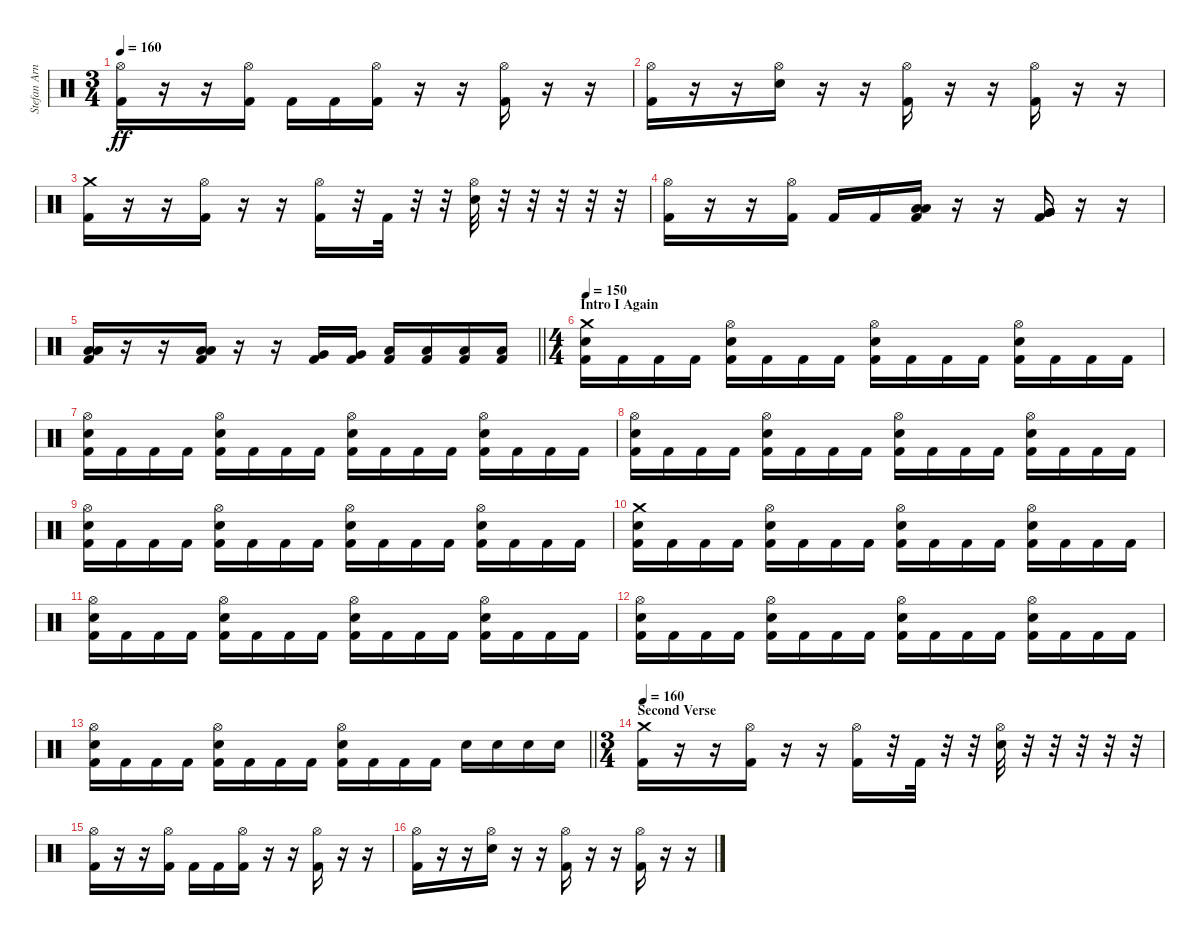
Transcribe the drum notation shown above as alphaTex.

\track ("Stefan Arnold" "Stefan Arn") {instrument percussion}
\staff {score}
\articulation defaults
\ts (3 4)
\tempo 160
\clef neutral
\ks c
("Hi-Hat (open)" "Kick (hit) 2").16{dy ff} r.16 r.16 ("Hi-Hat (open)" "Kick (hit) 2").16 "Kick (hit) 2".16 "Kick (hit) 2".16 ("Hi-Hat (open)" "Kick (hit) 2").16 r.16 r.16 ("Hi-Hat (open)" "Kick (hit) 2").16 r.16 r.16 |
("Hi-Hat (open)" "Kick (hit) 2").16 r.16 r.16 ("Hi-Hat (open)" "Electric Snare (hit)").16 r.16 r.16 ("Hi-Hat (open)" "Kick (hit) 2").16 r.16 r.16 ("Hi-Hat (open)" "Kick (hit) 2").16 r.16 r.16 |
("Crash medium (hit)" "Kick (hit) 2").16 r.16 r.16 ("Hi-Hat (open)" "Kick (hit) 2").16 r.16 r.16 ("Hi-Hat (open)" "Kick (hit) 2").16 r.32 "Kick (hit) 2".32 r.32 r.32 ("Hi-Hat (open)" "Electric Snare (hit)").32 r.32 r.32 r.32 r.32 r.32 |
("Hi-Hat (open)" "Kick (hit) 2").16 r.16 r.16 ("Hi-Hat (open)" "Kick (hit) 2").16 "Kick (hit) 2".16 "Kick (hit) 2".16 ("Low Tom (hit)" "Low Tom (hit)" "Kick (hit) 2").16 r.16 r.16 ("Very Low Tom (hit)" "Very Low Tom (hit)" "Kick (hit) 2").16 r.16 r.16 |
\barLineRight lightlight
("Low Floor Tom (hit)" "Low Floor Tom (hit)" "Kick (hit) 2").16 r.16 r.16 ("Low Tom (hit)" "Low Tom (hit)" "Kick (hit) 2").16 r.16 r.16 ("Very Low Tom (hit)" "Kick (hit) 2").16 ("Very Low Tom (hit)" "Kick (hit) 2").16 ("Low Tom (hit)" "Kick (hit) 2").16 ("Low Tom (hit)" "Kick (hit) 2").16 ("Low Tom (hit)" "Kick (hit) 2").16 ("Low Floor Tom (hit)" "Kick (hit) 2").16 |
\ts (4 4)
\section ("" "Intro I Again")
\tempo 150
("Crash medium (hit)" "Electric Snare (hit)" "Kick (hit) 2").16 "Kick (hit) 2".16 "Kick (hit) 2".16 "Kick (hit) 2".16 ("Hi-Hat (open)" "Electric Snare (hit)" "Kick (hit) 2").16 "Kick (hit) 2".16 "Kick (hit) 2".16 "Kick (hit) 2".16 ("Hi-Hat (open)" "Electric Snare (hit)" "Kick (hit) 2").16 "Kick (hit) 2".16 "Kick (hit) 2".16 "Kick (hit) 2".16 ("Hi-Hat (open)" "Electric Snare (hit)" "Kick (hit) 2").16 "Kick (hit) 2".16 "Kick (hit) 2".16 "Kick (hit) 2".16 |
("Hi-Hat (open)" "Electric Snare (hit)" "Kick (hit) 2").16 "Kick (hit) 2".16 "Kick (hit) 2".16 "Kick (hit) 2".16 ("Hi-Hat (open)" "Electric Snare (hit)" "Kick (hit) 2").16 "Kick (hit) 2".16 "Kick (hit) 2".16 "Kick (hit) 2".16 ("Hi-Hat (open)" "Electric Snare (hit)" "Kick (hit) 2").16 "Kick (hit) 2".16 "Kick (hit) 2".16 "Kick (hit) 2".16 ("Hi-Hat (open)" "Electric Snare (hit)" "Kick (hit) 2").16 "Kick (hit) 2".16 "Kick (hit) 2".16 "Kick (hit) 2".16 |
("Hi-Hat (open)" "Electric Snare (hit)" "Kick (hit) 2").16 "Kick (hit) 2".16 "Kick (hit) 2".16 "Kick (hit) 2".16 ("Hi-Hat (open)" "Electric Snare (hit)" "Kick (hit) 2").16 "Kick (hit) 2".16 "Kick (hit) 2".16 "Kick (hit) 2".16 ("Hi-Hat (open)" "Electric Snare (hit)" "Kick (hit) 2").16 "Kick (hit) 2".16 "Kick (hit) 2".16 "Kick (hit) 2".16 ("Hi-Hat (open)" "Electric Snare (hit)" "Kick (hit) 2").16 "Kick (hit) 2".16 "Kick (hit) 2".16 "Kick (hit) 2".16 |
("Hi-Hat (open)" "Electric Snare (hit)" "Kick (hit) 2").16 "Kick (hit) 2".16 "Kick (hit) 2".16 "Kick (hit) 2".16 ("Hi-Hat (open)" "Electric Snare (hit)" "Kick (hit) 2").16 "Kick (hit) 2".16 "Kick (hit) 2".16 "Kick (hit) 2".16 ("Hi-Hat (open)" "Electric Snare (hit)" "Kick (hit) 2").16 "Kick (hit) 2".16 "Kick (hit) 2".16 "Kick (hit) 2".16 ("Hi-Hat (open)" "Electric Snare (hit)" "Kick (hit) 2").16 "Kick (hit) 2".16 "Kick (hit) 2".16 "Kick (hit) 2".16 |
("Crash medium (hit)" "Electric Snare (hit)" "Kick (hit) 2").16 "Kick (hit) 2".16 "Kick (hit) 2".16 "Kick (hit) 2".16 ("Hi-Hat (open)" "Electric Snare (hit)" "Kick (hit) 2").16 "Kick (hit) 2".16 "Kick (hit) 2".16 "Kick (hit) 2".16 ("Hi-Hat (open)" "Electric Snare (hit)" "Kick (hit) 2").16 "Kick (hit) 2".16 "Kick (hit) 2".16 "Kick (hit) 2".16 ("Hi-Hat (open)" "Electric Snare (hit)" "Kick (hit) 2").16 "Kick (hit) 2".16 "Kick (hit) 2".16 "Kick (hit) 2".16 |
("Hi-Hat (open)" "Electric Snare (hit)" "Kick (hit) 2").16 "Kick (hit) 2".16 "Kick (hit) 2".16 "Kick (hit) 2".16 ("Hi-Hat (open)" "Electric Snare (hit)" "Kick (hit) 2").16 "Kick (hit) 2".16 "Kick (hit) 2".16 "Kick (hit) 2".16 ("Hi-Hat (open)" "Electric Snare (hit)" "Kick (hit) 2").16 "Kick (hit) 2".16 "Kick (hit) 2".16 "Kick (hit) 2".16 ("Hi-Hat (open)" "Electric Snare (hit)" "Kick (hit) 2").16 "Kick (hit) 2".16 "Kick (hit) 2".16 "Kick (hit) 2".16 |
("Hi-Hat (open)" "Electric Snare (hit)" "Kick (hit) 2").16 "Kick (hit) 2".16 "Kick (hit) 2".16 "Kick (hit) 2".16 ("Hi-Hat (open)" "Electric Snare (hit)" "Kick (hit) 2").16 "Kick (hit) 2".16 "Kick (hit) 2".16 "Kick (hit) 2".16 ("Hi-Hat (open)" "Electric Snare (hit)" "Kick (hit) 2").16 "Kick (hit) 2".16 "Kick (hit) 2".16 "Kick (hit) 2".16 ("Hi-Hat (open)" "Electric Snare (hit)" "Kick (hit) 2").16 "Kick (hit) 2".16 "Kick (hit) 2".16 "Kick (hit) 2".16 |
\barLineRight lightlight
("Hi-Hat (open)" "Electric Snare (hit)" "Kick (hit) 2").16 "Kick (hit) 2".16 "Kick (hit) 2".16 "Kick (hit) 2".16 ("Hi-Hat (open)" "Electric Snare (hit)" "Kick (hit) 2").16 "Kick (hit) 2".16 "Kick (hit) 2".16 "Kick (hit) 2".16 ("Hi-Hat (open)" "Electric Snare (hit)" "Kick (hit) 2").16 "Kick (hit) 2".16 "Kick (hit) 2".16 "Kick (hit) 2".16 "Electric Snare (hit)".16 "Electric Snare (hit)".16 "Electric Snare (hit)".16 "Electric Snare (hit)".16 |
\ts (3 4)
\section ("" "Second Verse")
\tempo 160
("Crash medium (hit)" "Kick (hit) 2").16 r.16 r.16 ("Hi-Hat (open)" "Kick (hit) 2").16 r.16 r.16 ("Hi-Hat (open)" "Kick (hit) 2").16 r.32 "Kick (hit) 2".32 r.32 r.32 ("Hi-Hat (open)" "Electric Snare (hit)").32 r.32 r.32 r.32 r.32 r.32 |
("Hi-Hat (open)" "Kick (hit) 2").16 r.16 r.16 ("Hi-Hat (open)" "Kick (hit) 2").16 "Kick (hit) 2".16 "Kick (hit) 2".16 ("Hi-Hat (open)" "Kick (hit) 2").16 r.16 r.16 ("Hi-Hat (open)" "Kick (hit) 2").16 r.16 r.16 |
("Hi-Hat (open)" "Kick (hit) 2").16 r.16 r.16 ("Hi-Hat (open)" "Electric Snare (hit)").16 r.16 r.16 ("Hi-Hat (open)" "Kick (hit) 2").16 r.16 r.16 ("Hi-Hat (open)" "Kick (hit) 2").16 r.16 r.16
